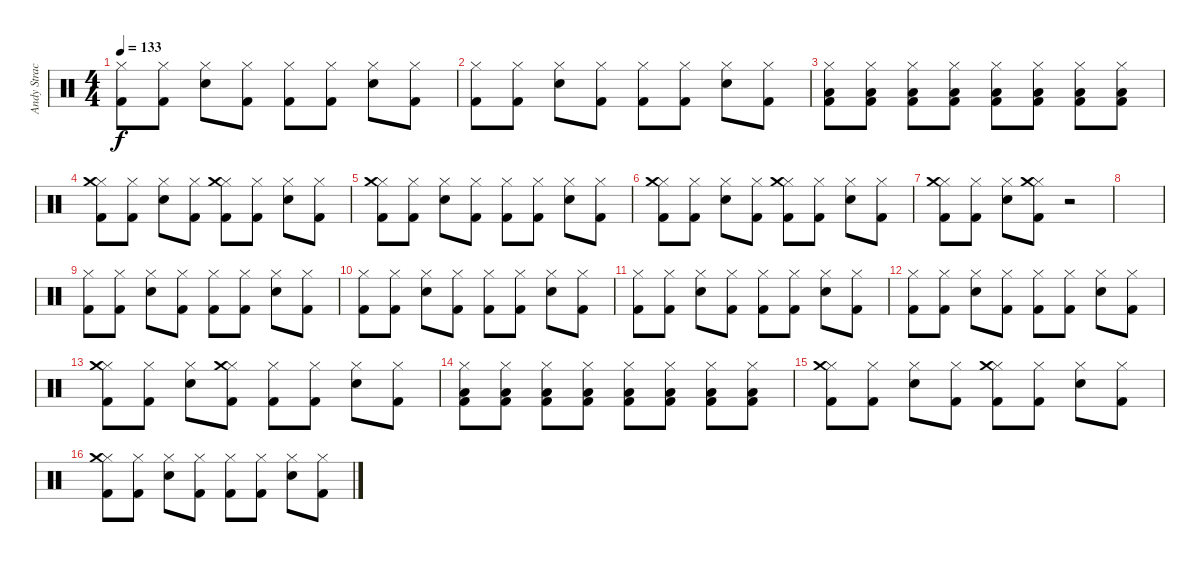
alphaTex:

\track ("Andy Strachan" "Andy Strac") {instrument percussion}
\staff {score}
\articulation defaults
\ts (4 4)
\tempo 133
\clef neutral
\ks c
("Hi-Hat (closed)" "Kick (hit) 2").8{dy f} ("Hi-Hat (closed)" "Kick (hit) 2").8 ("Electric Snare (hit)" "Hi-Hat (closed)").8 ("Hi-Hat (closed)" "Kick (hit) 2").8 ("Hi-Hat (closed)" "Kick (hit) 2").8 ("Hi-Hat (closed)" "Kick (hit) 2").8 ("Electric Snare (hit)" "Hi-Hat (closed)").8 ("Hi-Hat (closed)" "Kick (hit) 2").8 |
("Hi-Hat (closed)" "Kick (hit) 2").8 ("Hi-Hat (closed)" "Kick (hit) 2").8 ("Electric Snare (hit)" "Hi-Hat (closed)").8 ("Hi-Hat (closed)" "Kick (hit) 2").8 ("Hi-Hat (closed)" "Kick (hit) 2").8 ("Hi-Hat (closed)" "Kick (hit) 2").8 ("Electric Snare (hit)" "Hi-Hat (closed)").8 ("Hi-Hat (closed)" "Kick (hit) 2").8 |
("Hi-Hat (closed)" "Kick (hit) 2" "Low Floor Tom (hit)").8 ("Hi-Hat (closed)" "Kick (hit) 2" "Low Floor Tom (hit)").8 ("Hi-Hat (closed)" "Kick (hit) 2" "Low Floor Tom (hit)").8 ("Hi-Hat (closed)" "Kick (hit) 2" "Low Floor Tom (hit)").8 ("Hi-Hat (closed)" "Kick (hit) 2" "Low Floor Tom (hit)").8 ("Hi-Hat (closed)" "Kick (hit) 2" "Low Floor Tom (hit)").8 ("Hi-Hat (closed)" "Kick (hit) 2" "Low Floor Tom (hit)").8 ("Hi-Hat (closed)" "Kick (hit) 2" "Low Floor Tom (hit)").8 |
("Hi-Hat (closed)" "Kick (hit) 2" "Crash medium (hit)").8 ("Hi-Hat (closed)" "Kick (hit) 2").8 ("Electric Snare (hit)" "Hi-Hat (closed)").8 ("Hi-Hat (closed)" "Kick (hit) 2").8 ("Hi-Hat (closed)" "Kick (hit) 2" "Crash medium (hit)").8 ("Hi-Hat (closed)" "Kick (hit) 2").8 ("Electric Snare (hit)" "Hi-Hat (closed)").8 ("Hi-Hat (closed)" "Kick (hit) 2").8 |
("Hi-Hat (closed)" "Kick (hit) 2" "Crash medium (hit)").8 ("Hi-Hat (closed)" "Kick (hit) 2").8 ("Electric Snare (hit)" "Hi-Hat (closed)").8 ("Hi-Hat (closed)" "Kick (hit) 2").8 ("Hi-Hat (closed)" "Kick (hit) 2").8 ("Hi-Hat (closed)" "Kick (hit) 2").8 ("Electric Snare (hit)" "Hi-Hat (closed)").8 ("Hi-Hat (closed)" "Kick (hit) 2").8 |
("Hi-Hat (closed)" "Kick (hit) 2" "Crash medium (hit)").8 ("Hi-Hat (closed)" "Kick (hit) 2").8 ("Electric Snare (hit)" "Hi-Hat (closed)").8 ("Hi-Hat (closed)" "Kick (hit) 2").8 ("Hi-Hat (closed)" "Kick (hit) 2" "Crash medium (hit)").8 ("Hi-Hat (closed)" "Kick (hit) 2").8 ("Electric Snare (hit)" "Hi-Hat (closed)").8 ("Hi-Hat (closed)" "Kick (hit) 2").8 |
("Hi-Hat (closed)" "Kick (hit) 2" "Crash medium (hit)").8 ("Hi-Hat (closed)" "Kick (hit) 2").8 ("Electric Snare (hit)" "Hi-Hat (closed)").8 ("Hi-Hat (closed)" "Kick (hit) 2" "Crash medium (hit)").8 r.2 |
|
("Hi-Hat (closed)" "Kick (hit) 2").8 ("Hi-Hat (closed)" "Kick (hit) 2").8 ("Electric Snare (hit)" "Hi-Hat (closed)").8 ("Hi-Hat (closed)" "Kick (hit) 2").8 ("Hi-Hat (closed)" "Kick (hit) 2").8 ("Hi-Hat (closed)" "Kick (hit) 2").8 ("Electric Snare (hit)" "Hi-Hat (closed)").8 ("Hi-Hat (closed)" "Kick (hit) 2").8 |
("Hi-Hat (closed)" "Kick (hit) 2").8 ("Hi-Hat (closed)" "Kick (hit) 2").8 ("Electric Snare (hit)" "Hi-Hat (closed)").8 ("Hi-Hat (closed)" "Kick (hit) 2").8 ("Hi-Hat (closed)" "Kick (hit) 2").8 ("Hi-Hat (closed)" "Kick (hit) 2").8 ("Electric Snare (hit)" "Hi-Hat (closed)").8 ("Hi-Hat (closed)" "Kick (hit) 2").8 |
("Hi-Hat (closed)" "Kick (hit) 2").8 ("Hi-Hat (closed)" "Kick (hit) 2").8 ("Electric Snare (hit)" "Hi-Hat (closed)").8 ("Hi-Hat (closed)" "Kick (hit) 2").8 ("Hi-Hat (closed)" "Kick (hit) 2").8 ("Hi-Hat (closed)" "Kick (hit) 2").8 ("Electric Snare (hit)" "Hi-Hat (closed)").8 ("Hi-Hat (closed)" "Kick (hit) 2").8 |
("Hi-Hat (closed)" "Kick (hit) 2").8 ("Hi-Hat (closed)" "Kick (hit) 2").8 ("Electric Snare (hit)" "Hi-Hat (closed)").8 ("Hi-Hat (closed)" "Kick (hit) 2").8 ("Hi-Hat (closed)" "Kick (hit) 2").8 ("Hi-Hat (closed)" "Kick (hit) 2").8 ("Electric Snare (hit)" "Hi-Hat (closed)").8 ("Hi-Hat (closed)" "Kick (hit) 2").8 |
("Hi-Hat (closed)" "Kick (hit) 2" "Crash medium (hit)").8 ("Hi-Hat (closed)" "Kick (hit) 2").8 ("Electric Snare (hit)" "Hi-Hat (closed)").8 ("Hi-Hat (closed)" "Kick (hit) 2" "Crash medium (hit)").8 ("Hi-Hat (closed)" "Kick (hit) 2").8 ("Hi-Hat (closed)" "Kick (hit) 2").8 ("Electric Snare (hit)" "Hi-Hat (closed)").8 ("Hi-Hat (closed)" "Kick (hit) 2").8 |
("Hi-Hat (closed)" "Kick (hit) 2" "Low Floor Tom (hit)").8 ("Hi-Hat (closed)" "Kick (hit) 2" "Low Floor Tom (hit)").8 ("Hi-Hat (closed)" "Kick (hit) 2" "Low Floor Tom (hit)").8 ("Hi-Hat (closed)" "Kick (hit) 2" "Low Floor Tom (hit)").8 ("Hi-Hat (closed)" "Kick (hit) 2" "Low Floor Tom (hit)").8 ("Hi-Hat (closed)" "Kick (hit) 2" "Low Floor Tom (hit)").8 ("Hi-Hat (closed)" "Kick (hit) 2" "Low Floor Tom (hit)").8 ("Hi-Hat (closed)" "Kick (hit) 2" "Low Floor Tom (hit)").8 |
("Hi-Hat (closed)" "Kick (hit) 2" "Crash medium (hit)").8 ("Hi-Hat (closed)" "Kick (hit) 2").8 ("Electric Snare (hit)" "Hi-Hat (closed)").8 ("Hi-Hat (closed)" "Kick (hit) 2").8 ("Hi-Hat (closed)" "Kick (hit) 2" "Crash medium (hit)").8 ("Hi-Hat (closed)" "Kick (hit) 2").8 ("Electric Snare (hit)" "Hi-Hat (closed)").8 ("Hi-Hat (closed)" "Kick (hit) 2").8 |
("Hi-Hat (closed)" "Kick (hit) 2" "Crash medium (hit)").8 ("Hi-Hat (closed)" "Kick (hit) 2").8 ("Electric Snare (hit)" "Hi-Hat (closed)").8 ("Hi-Hat (closed)" "Kick (hit) 2").8 ("Hi-Hat (closed)" "Kick (hit) 2").8 ("Hi-Hat (closed)" "Kick (hit) 2").8 ("Electric Snare (hit)" "Hi-Hat (closed)").8 ("Hi-Hat (closed)" "Kick (hit) 2").8
